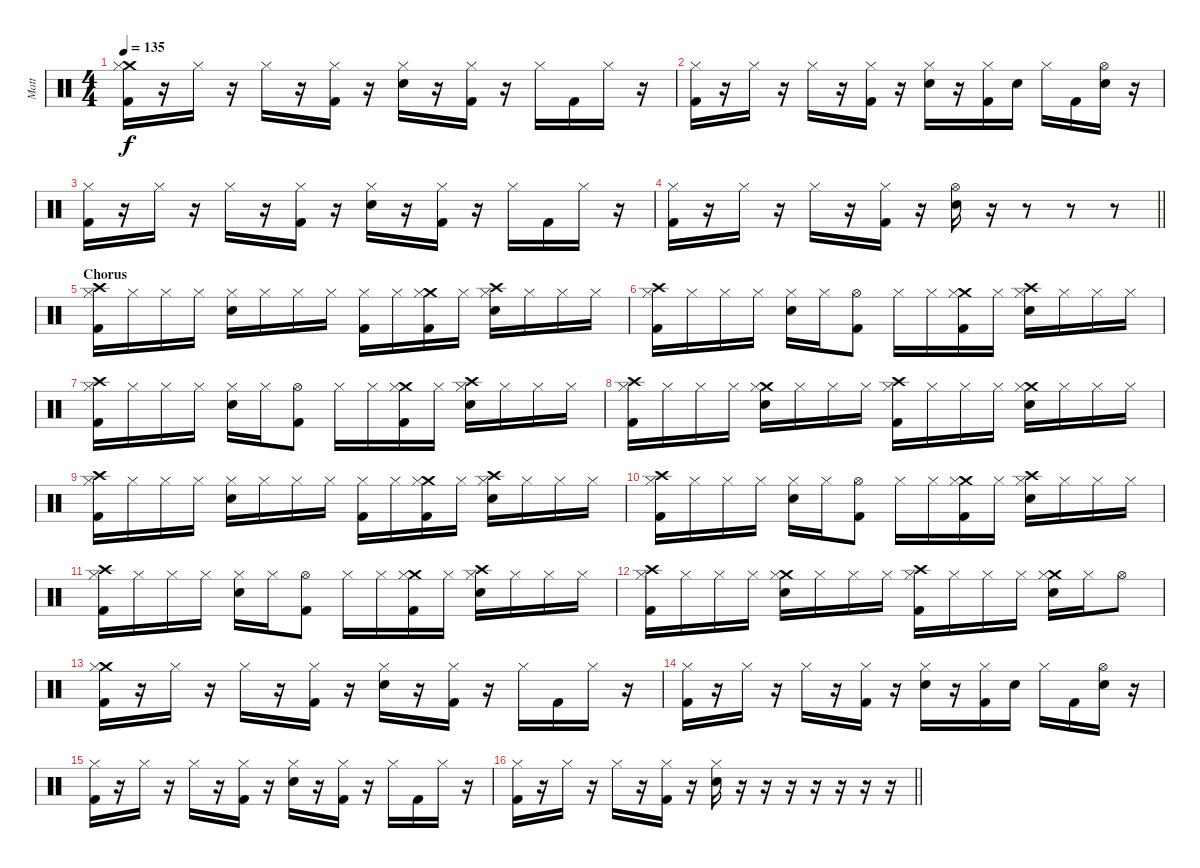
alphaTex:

\track ("Matt" "Matt") {instrument percussion}
\staff {score}
\articulation defaults
\ts (4 4)
\tempo 135
\clef neutral
\ks c
("Crash medium (hit)" "Hi-Hat (closed)" "Kick (hit) 2").16{dy f} r.16 "Hi-Hat (closed)".16 r.16 "Hi-Hat (closed)".16 r.16 ("Hi-Hat (closed)" "Kick (hit) 2").16 r.16 ("Hi-Hat (closed)" "Snare (hit) 2").16 r.16 ("Hi-Hat (closed)" "Kick (hit) 2").16 r.16 "Hi-Hat (closed)".16 "Kick (hit) 2".16 "Hi-Hat (closed)".16 r.16 |
("Hi-Hat (closed)" "Kick (hit) 2").16 r.16 "Hi-Hat (closed)".16 r.16 "Hi-Hat (closed)".16 r.16 ("Hi-Hat (closed)" "Kick (hit) 2").16 r.16 ("Hi-Hat (closed)" "Snare (hit) 2").16 r.16 ("Hi-Hat (closed)" "Kick (hit) 2").16 "Snare (hit) 2".16 "Hi-Hat (closed)".16 "Kick (hit) 2".16 ("Hi-Hat (open)" "Snare (hit) 2").16 r.16 |
("Hi-Hat (closed)" "Kick (hit) 2").16 r.16 "Hi-Hat (closed)".16 r.16 "Hi-Hat (closed)".16 r.16 ("Hi-Hat (closed)" "Kick (hit) 2").16 r.16 ("Hi-Hat (closed)" "Snare (hit) 2").16 r.16 ("Hi-Hat (closed)" "Kick (hit) 2").16 r.16 "Hi-Hat (closed)".16 "Kick (hit) 2".16 "Hi-Hat (closed)".16 r.16 |
\barLineRight lightlight
("Hi-Hat (closed)" "Kick (hit) 2").16 r.16 "Hi-Hat (closed)".16 r.16 "Hi-Hat (closed)".16 r.16 ("Hi-Hat (closed)" "Kick (hit) 2").16 r.16 ("Hi-Hat (open)" "Snare (hit) 2").16 r.16 r.8 r.8 r.8 |
\section ("" "Chorus")
("Crash high (hit)" "Hi-Hat (closed)" "Kick (hit) 2").16 "Hi-Hat (closed)".16 "Hi-Hat (closed)".16 "Hi-Hat (closed)".16 ("Hi-Hat (closed)" "Snare (hit) 2").16 "Hi-Hat (closed)".16 "Hi-Hat (closed)".16 "Hi-Hat (closed)".16 ("Hi-Hat (closed)" "Kick (hit) 2").16 "Hi-Hat (closed)".16 ("Crash medium (hit)" "Hi-Hat (closed)" "Kick (hit) 2").16 "Hi-Hat (closed)".16 ("Crash high (hit)" "Hi-Hat (closed)" "Snare (hit) 2").16 "Hi-Hat (closed)".16 "Hi-Hat (closed)".16 "Hi-Hat (closed)".16 |
("Crash high (hit)" "Hi-Hat (closed)" "Kick (hit) 2").16 "Hi-Hat (closed)".16 "Hi-Hat (closed)".16 "Hi-Hat (closed)".16 ("Hi-Hat (closed)" "Snare (hit) 2").16 "Hi-Hat (closed)".16 ("Hi-Hat (open)" "Kick (hit) 2").8 "Hi-Hat (closed)".16 "Hi-Hat (closed)".16 ("Crash medium (hit)" "Hi-Hat (closed)" "Kick (hit) 2").16 "Hi-Hat (closed)".16 ("Crash high (hit)" "Hi-Hat (closed)" "Snare (hit) 2").16 "Hi-Hat (closed)".16 "Hi-Hat (closed)".16 "Hi-Hat (closed)".16 |
("Crash high (hit)" "Hi-Hat (closed)" "Kick (hit) 2").16 "Hi-Hat (closed)".16 "Hi-Hat (closed)".16 "Hi-Hat (closed)".16 ("Hi-Hat (closed)" "Snare (hit) 2").16 "Hi-Hat (closed)".16 ("Hi-Hat (open)" "Kick (hit) 2").8 "Hi-Hat (closed)".16 "Hi-Hat (closed)".16 ("Crash medium (hit)" "Hi-Hat (closed)" "Kick (hit) 2").16 "Hi-Hat (closed)".16 ("Crash high (hit)" "Hi-Hat (closed)" "Snare (hit) 2").16 "Hi-Hat (closed)".16 "Hi-Hat (closed)".16 "Hi-Hat (closed)".16 |
("Crash high (hit)" "Hi-Hat (closed)" "Kick (hit) 2").16 "Hi-Hat (closed)".16 "Hi-Hat (closed)".16 "Hi-Hat (closed)".16 ("Crash medium (hit)" "Hi-Hat (closed)" "Snare (hit) 2").16 "Hi-Hat (closed)".16 "Hi-Hat (closed)".16 "Hi-Hat (closed)".16 ("Crash high (hit)" "Hi-Hat (closed)" "Kick (hit) 2").16 "Hi-Hat (closed)".16 "Hi-Hat (closed)".16 "Hi-Hat (closed)".16 ("Crash medium (hit)" "Hi-Hat (closed)" "Snare (hit) 2").16 "Hi-Hat (closed)".16 "Hi-Hat (closed)".16 "Hi-Hat (closed)".16 |
("Crash high (hit)" "Hi-Hat (closed)" "Kick (hit) 2").16 "Hi-Hat (closed)".16 "Hi-Hat (closed)".16 "Hi-Hat (closed)".16 ("Hi-Hat (closed)" "Snare (hit) 2").16 "Hi-Hat (closed)".16 "Hi-Hat (closed)".16 "Hi-Hat (closed)".16 ("Hi-Hat (closed)" "Kick (hit) 2").16 "Hi-Hat (closed)".16 ("Crash medium (hit)" "Hi-Hat (closed)" "Kick (hit) 2").16 "Hi-Hat (closed)".16 ("Crash high (hit)" "Hi-Hat (closed)" "Snare (hit) 2").16 "Hi-Hat (closed)".16 "Hi-Hat (closed)".16 "Hi-Hat (closed)".16 |
("Crash high (hit)" "Hi-Hat (closed)" "Kick (hit) 2").16 "Hi-Hat (closed)".16 "Hi-Hat (closed)".16 "Hi-Hat (closed)".16 ("Hi-Hat (closed)" "Snare (hit) 2").16 "Hi-Hat (closed)".16 ("Hi-Hat (open)" "Kick (hit) 2").8 "Hi-Hat (closed)".16 "Hi-Hat (closed)".16 ("Crash medium (hit)" "Hi-Hat (closed)" "Kick (hit) 2").16 "Hi-Hat (closed)".16 ("Crash high (hit)" "Hi-Hat (closed)" "Snare (hit) 2").16 "Hi-Hat (closed)".16 "Hi-Hat (closed)".16 "Hi-Hat (closed)".16 |
("Crash high (hit)" "Hi-Hat (closed)" "Kick (hit) 2").16 "Hi-Hat (closed)".16 "Hi-Hat (closed)".16 "Hi-Hat (closed)".16 ("Hi-Hat (closed)" "Snare (hit) 2").16 "Hi-Hat (closed)".16 ("Hi-Hat (open)" "Kick (hit) 2").8 "Hi-Hat (closed)".16 "Hi-Hat (closed)".16 ("Crash medium (hit)" "Hi-Hat (closed)" "Kick (hit) 2").16 "Hi-Hat (closed)".16 ("Crash high (hit)" "Hi-Hat (closed)" "Snare (hit) 2").16 "Hi-Hat (closed)".16 "Hi-Hat (closed)".16 "Hi-Hat (closed)".16 |
("Crash high (hit)" "Hi-Hat (closed)" "Kick (hit) 2").16 "Hi-Hat (closed)".16 "Hi-Hat (closed)".16 "Hi-Hat (closed)".16 ("Crash medium (hit)" "Hi-Hat (closed)" "Snare (hit) 2").16 "Hi-Hat (closed)".16 "Hi-Hat (closed)".16 "Hi-Hat (closed)".16 ("Crash high (hit)" "Hi-Hat (closed)" "Kick (hit) 2").16 "Hi-Hat (closed)".16 "Hi-Hat (closed)".16 "Hi-Hat (closed)".16 ("Crash medium (hit)" "Hi-Hat (closed)" "Snare (hit) 2").16 "Hi-Hat (closed)".16 "Hi-Hat (open)".8 |
("Crash medium (hit)" "Hi-Hat (closed)" "Kick (hit) 2").16 r.16 "Hi-Hat (closed)".16 r.16 "Hi-Hat (closed)".16 r.16 ("Hi-Hat (closed)" "Kick (hit) 2").16 r.16 ("Hi-Hat (closed)" "Snare (hit) 2").16 r.16 ("Hi-Hat (closed)" "Kick (hit) 2").16 r.16 "Hi-Hat (closed)".16 "Kick (hit) 2".16 "Hi-Hat (closed)".16 r.16 |
("Hi-Hat (closed)" "Kick (hit) 2").16 r.16 "Hi-Hat (closed)".16 r.16 "Hi-Hat (closed)".16 r.16 ("Hi-Hat (closed)" "Kick (hit) 2").16 r.16 ("Hi-Hat (closed)" "Snare (hit) 2").16 r.16 ("Hi-Hat (closed)" "Kick (hit) 2").16 "Snare (hit) 2".16 "Hi-Hat (closed)".16 "Kick (hit) 2".16 ("Hi-Hat (open)" "Snare (hit) 2").16 r.16 |
("Hi-Hat (closed)" "Kick (hit) 2").16 r.16 "Hi-Hat (closed)".16 r.16 "Hi-Hat (closed)".16 r.16 ("Hi-Hat (closed)" "Kick (hit) 2").16 r.16 ("Hi-Hat (closed)" "Snare (hit) 2").16 r.16 ("Hi-Hat (closed)" "Kick (hit) 2").16 r.16 "Hi-Hat (closed)".16 "Kick (hit) 2".16 "Hi-Hat (closed)".16 r.16 |
\barLineRight lightlight
("Hi-Hat (closed)" "Kick (hit) 2").16 r.16 "Hi-Hat (closed)".16 r.16 "Hi-Hat (closed)".16 r.16 ("Hi-Hat (closed)" "Kick (hit) 2").16 r.16 ("Hi-Hat (closed)" "Snare (hit) 2").16 r.16 r.16 r.16 r.16 r.16 r.16 r.16
